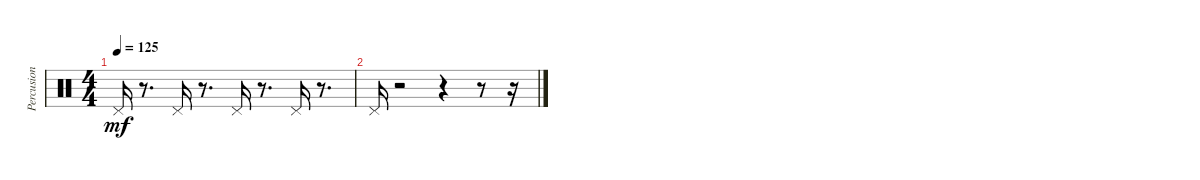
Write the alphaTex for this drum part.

\track ("Percusion" "Percusion") {instrument percussion}
\staff {score}
\articulation defaults
\ts (4 4)
\tempo 125
\clef neutral
\ks c "Pedal Hi-Hat (hit)".16{dy mf}
r.8{d} "Pedal Hi-Hat (hit)".16 r.8{d} "Pedal Hi-Hat (hit)".16 r.8{d} "Pedal Hi-Hat (hit)".16 r.8{d} |
"Pedal Hi-Hat (hit)".16 r.2 r.4 r.8 r.16
